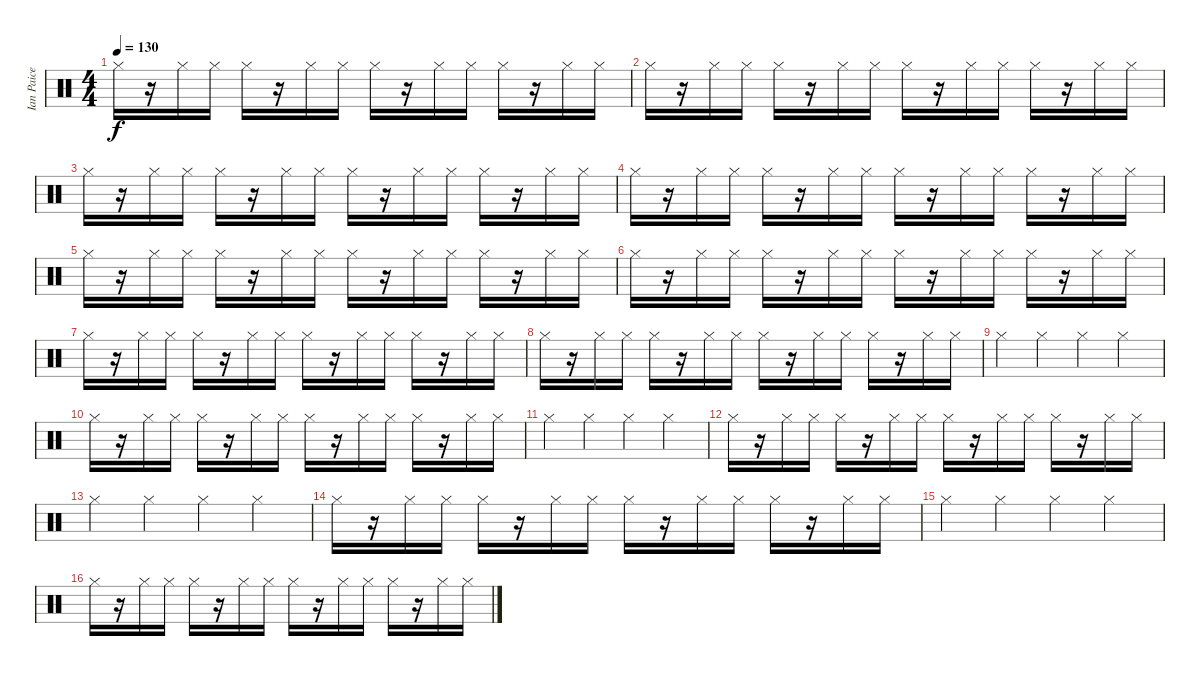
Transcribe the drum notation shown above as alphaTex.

\track ("Ian Paice" "Ian Paice") {instrument percussion}
\staff {score}
\articulation defaults
\ts (4 4)
\tempo 130
\clef neutral
\ks c "Hi-Hat (closed)".16{dy f}
r.16 "Hi-Hat (closed)".16 "Hi-Hat (closed)".16 "Hi-Hat (closed)".16 r.16 "Hi-Hat (closed)".16 "Hi-Hat (closed)".16 "Hi-Hat (closed)".16 r.16 "Hi-Hat (closed)".16 "Hi-Hat (closed)".16 "Hi-Hat (closed)".16 r.16 "Hi-Hat (closed)".16 "Hi-Hat (closed)".16 |
"Hi-Hat (closed)".16 r.16 "Hi-Hat (closed)".16 "Hi-Hat (closed)".16 "Hi-Hat (closed)".16 r.16 "Hi-Hat (closed)".16 "Hi-Hat (closed)".16 "Hi-Hat (closed)".16 r.16 "Hi-Hat (closed)".16 "Hi-Hat (closed)".16 "Hi-Hat (closed)".16 r.16 "Hi-Hat (closed)".16 "Hi-Hat (closed)".16 |
"Hi-Hat (closed)".16 r.16 "Hi-Hat (closed)".16 "Hi-Hat (closed)".16 "Hi-Hat (closed)".16 r.16 "Hi-Hat (closed)".16 "Hi-Hat (closed)".16 "Hi-Hat (closed)".16 r.16 "Hi-Hat (closed)".16 "Hi-Hat (closed)".16 "Hi-Hat (closed)".16 r.16 "Hi-Hat (closed)".16 "Hi-Hat (closed)".16 |
"Hi-Hat (closed)".16 r.16 "Hi-Hat (closed)".16 "Hi-Hat (closed)".16 "Hi-Hat (closed)".16 r.16 "Hi-Hat (closed)".16 "Hi-Hat (closed)".16 "Hi-Hat (closed)".16 r.16 "Hi-Hat (closed)".16 "Hi-Hat (closed)".16 "Hi-Hat (closed)".16 r.16 "Hi-Hat (closed)".16 "Hi-Hat (closed)".16 |
"Hi-Hat (closed)".16 r.16 "Hi-Hat (closed)".16 "Hi-Hat (closed)".16 "Hi-Hat (closed)".16 r.16 "Hi-Hat (closed)".16 "Hi-Hat (closed)".16 "Hi-Hat (closed)".16 r.16 "Hi-Hat (closed)".16 "Hi-Hat (closed)".16 "Hi-Hat (closed)".16 r.16 "Hi-Hat (closed)".16 "Hi-Hat (closed)".16 |
"Hi-Hat (closed)".16 r.16 "Hi-Hat (closed)".16 "Hi-Hat (closed)".16 "Hi-Hat (closed)".16 r.16 "Hi-Hat (closed)".16 "Hi-Hat (closed)".16 "Hi-Hat (closed)".16 r.16 "Hi-Hat (closed)".16 "Hi-Hat (closed)".16 "Hi-Hat (closed)".16 r.16 "Hi-Hat (closed)".16 "Hi-Hat (closed)".16 |
"Hi-Hat (closed)".16 r.16 "Hi-Hat (closed)".16 "Hi-Hat (closed)".16 "Hi-Hat (closed)".16 r.16 "Hi-Hat (closed)".16 "Hi-Hat (closed)".16 "Hi-Hat (closed)".16 r.16 "Hi-Hat (closed)".16 "Hi-Hat (closed)".16 "Hi-Hat (closed)".16 r.16 "Hi-Hat (closed)".16 "Hi-Hat (closed)".16 |
"Hi-Hat (closed)".16 r.16 "Hi-Hat (closed)".16 "Hi-Hat (closed)".16 "Hi-Hat (closed)".16 r.16 "Hi-Hat (closed)".16 "Hi-Hat (closed)".16 "Hi-Hat (closed)".16 r.16 "Hi-Hat (closed)".16 "Hi-Hat (closed)".16 "Hi-Hat (closed)".16 r.16 "Hi-Hat (closed)".16 "Hi-Hat (closed)".16 |
"Hi-Hat (closed)".4 "Hi-Hat (closed)".4 "Hi-Hat (closed)".4 "Hi-Hat (closed)".4 |
"Hi-Hat (closed)".16 r.16 "Hi-Hat (closed)".16 "Hi-Hat (closed)".16 "Hi-Hat (closed)".16 r.16 "Hi-Hat (closed)".16 "Hi-Hat (closed)".16 "Hi-Hat (closed)".16 r.16 "Hi-Hat (closed)".16 "Hi-Hat (closed)".16 "Hi-Hat (closed)".16 r.16 "Hi-Hat (closed)".16 "Hi-Hat (closed)".16 |
"Hi-Hat (closed)".4 "Hi-Hat (closed)".4 "Hi-Hat (closed)".4 "Hi-Hat (closed)".4 |
"Hi-Hat (closed)".16 r.16 "Hi-Hat (closed)".16 "Hi-Hat (closed)".16 "Hi-Hat (closed)".16 r.16 "Hi-Hat (closed)".16 "Hi-Hat (closed)".16 "Hi-Hat (closed)".16 r.16 "Hi-Hat (closed)".16 "Hi-Hat (closed)".16 "Hi-Hat (closed)".16 r.16 "Hi-Hat (closed)".16 "Hi-Hat (closed)".16 |
"Hi-Hat (closed)".4 "Hi-Hat (closed)".4 "Hi-Hat (closed)".4 "Hi-Hat (closed)".4 |
"Hi-Hat (closed)".16 r.16 "Hi-Hat (closed)".16 "Hi-Hat (closed)".16 "Hi-Hat (closed)".16 r.16 "Hi-Hat (closed)".16 "Hi-Hat (closed)".16 "Hi-Hat (closed)".16 r.16 "Hi-Hat (closed)".16 "Hi-Hat (closed)".16 "Hi-Hat (closed)".16 r.16 "Hi-Hat (closed)".16 "Hi-Hat (closed)".16 |
"Hi-Hat (closed)".4 "Hi-Hat (closed)".4 "Hi-Hat (closed)".4 "Hi-Hat (closed)".4 |
"Hi-Hat (closed)".16 r.16 "Hi-Hat (closed)".16 "Hi-Hat (closed)".16 "Hi-Hat (closed)".16 r.16 "Hi-Hat (closed)".16 "Hi-Hat (closed)".16 "Hi-Hat (closed)".16 r.16 "Hi-Hat (closed)".16 "Hi-Hat (closed)".16 "Hi-Hat (closed)".16 r.16 "Hi-Hat (closed)".16 "Hi-Hat (closed)".16
